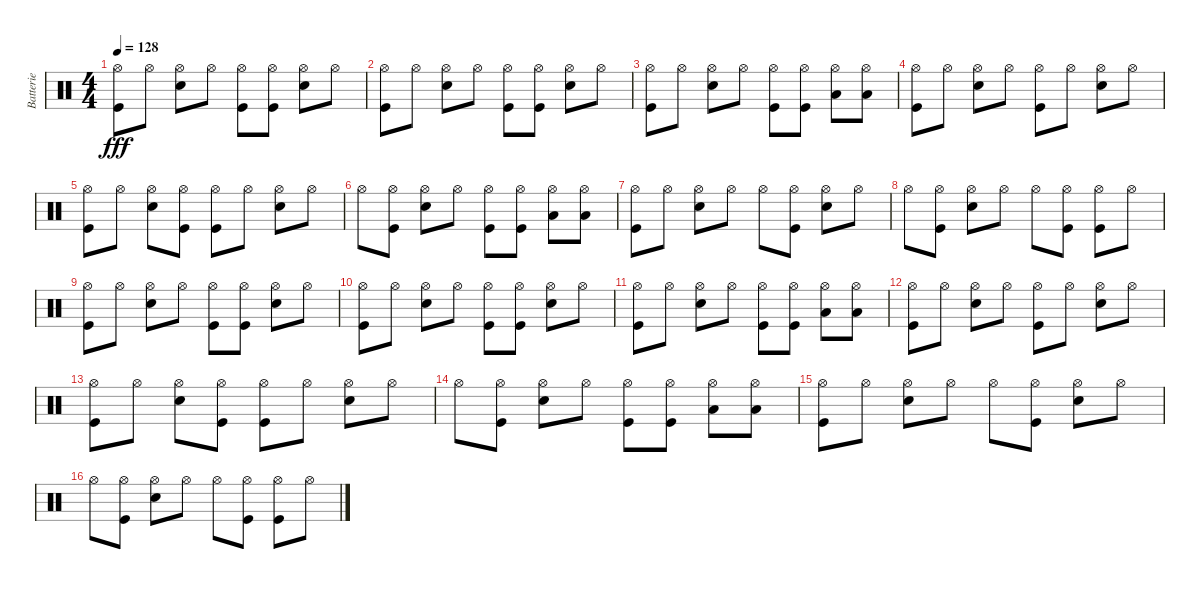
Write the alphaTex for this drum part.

\track ("Batterie" "Batterie") {instrument percussion}
\staff {score}
\articulation defaults
\ts (4 4)
\section ("" "")
\tempo 128
\clef neutral
\ks c
("Hi-Hat (open)" "Kick (hit)").8{dy fff} "Hi-Hat (open)".8 ("Hi-Hat (open)" "Electric Snare (hit)").8 "Hi-Hat (open)".8 ("Hi-Hat (open)" "Kick (hit)").8 ("Hi-Hat (open)" "Kick (hit)").8 ("Hi-Hat (open)" "Electric Snare (hit)").8 "Hi-Hat (open)".8 |
("Hi-Hat (open)" "Kick (hit)").8 "Hi-Hat (open)".8 ("Hi-Hat (open)" "Electric Snare (hit)").8 "Hi-Hat (open)".8 ("Hi-Hat (open)" "Kick (hit)").8 ("Hi-Hat (open)" "Kick (hit)").8 ("Hi-Hat (open)" "Electric Snare (hit)").8 "Hi-Hat (open)".8 |
("Hi-Hat (open)" "Kick (hit)").8 "Hi-Hat (open)".8 ("Hi-Hat (open)" "Electric Snare (hit)").8 "Hi-Hat (open)".8 ("Hi-Hat (open)" "Kick (hit)").8 ("Hi-Hat (open)" "Kick (hit)").8 ("Hi-Hat (open)" "Low Tom (hit)").8 ("Hi-Hat (open)" "Low Tom (hit)").8 |
("Hi-Hat (open)" "Kick (hit)").8 "Hi-Hat (open)".8 ("Hi-Hat (open)" "Electric Snare (hit)").8 "Hi-Hat (open)".8 ("Hi-Hat (open)" "Kick (hit)").8 "Hi-Hat (open)".8 ("Hi-Hat (open)" "Electric Snare (hit)").8 "Hi-Hat (open)".8 |
("Hi-Hat (open)" "Kick (hit)").8 "Hi-Hat (open)".8 ("Hi-Hat (open)" "Electric Snare (hit)").8 ("Hi-Hat (open)" "Kick (hit)").8 ("Hi-Hat (open)" "Kick (hit)").8 "Hi-Hat (open)".8 ("Hi-Hat (open)" "Electric Snare (hit)").8 "Hi-Hat (open)".8 |
"Hi-Hat (open)".8 ("Hi-Hat (open)" "Kick (hit)").8 ("Hi-Hat (open)" "Electric Snare (hit)").8 "Hi-Hat (open)".8 ("Hi-Hat (open)" "Kick (hit)").8 ("Hi-Hat (open)" "Kick (hit)").8 ("Hi-Hat (open)" "Low Tom (hit)").8 ("Hi-Hat (open)" "Low Tom (hit)").8 |
("Hi-Hat (open)" "Kick (hit)").8 "Hi-Hat (open)".8 ("Hi-Hat (open)" "Electric Snare (hit)").8 "Hi-Hat (open)".8 "Hi-Hat (open)".8 ("Hi-Hat (open)" "Kick (hit)").8 ("Hi-Hat (open)" "Electric Snare (hit)").8 "Hi-Hat (open)".8 |
"Hi-Hat (open)".8 ("Hi-Hat (open)" "Kick (hit)").8 ("Hi-Hat (open)" "Electric Snare (hit)").8 "Hi-Hat (open)".8 "Hi-Hat (open)".8 ("Hi-Hat (open)" "Kick (hit)").8 ("Hi-Hat (open)" "Kick (hit)").8 "Hi-Hat (open)".8 |
("Hi-Hat (open)" "Kick (hit)").8 "Hi-Hat (open)".8 ("Hi-Hat (open)" "Electric Snare (hit)").8 "Hi-Hat (open)".8 ("Hi-Hat (open)" "Kick (hit)").8 ("Hi-Hat (open)" "Kick (hit)").8 ("Hi-Hat (open)" "Electric Snare (hit)").8 "Hi-Hat (open)".8 |
("Hi-Hat (open)" "Kick (hit)").8 "Hi-Hat (open)".8 ("Hi-Hat (open)" "Electric Snare (hit)").8 "Hi-Hat (open)".8 ("Hi-Hat (open)" "Kick (hit)").8 ("Hi-Hat (open)" "Kick (hit)").8 ("Hi-Hat (open)" "Electric Snare (hit)").8 "Hi-Hat (open)".8 |
("Hi-Hat (open)" "Kick (hit)").8 "Hi-Hat (open)".8 ("Hi-Hat (open)" "Electric Snare (hit)").8 "Hi-Hat (open)".8 ("Hi-Hat (open)" "Kick (hit)").8 ("Hi-Hat (open)" "Kick (hit)").8 ("Hi-Hat (open)" "Low Tom (hit)").8 ("Hi-Hat (open)" "Low Tom (hit)").8 |
("Hi-Hat (open)" "Kick (hit)").8 "Hi-Hat (open)".8 ("Hi-Hat (open)" "Electric Snare (hit)").8 "Hi-Hat (open)".8 ("Hi-Hat (open)" "Kick (hit)").8 "Hi-Hat (open)".8 ("Hi-Hat (open)" "Electric Snare (hit)").8 "Hi-Hat (open)".8 |
("Hi-Hat (open)" "Kick (hit)").8 "Hi-Hat (open)".8 ("Hi-Hat (open)" "Electric Snare (hit)").8 ("Hi-Hat (open)" "Kick (hit)").8 ("Hi-Hat (open)" "Kick (hit)").8 "Hi-Hat (open)".8 ("Hi-Hat (open)" "Electric Snare (hit)").8 "Hi-Hat (open)".8 |
"Hi-Hat (open)".8 ("Hi-Hat (open)" "Kick (hit)").8 ("Hi-Hat (open)" "Electric Snare (hit)").8 "Hi-Hat (open)".8 ("Hi-Hat (open)" "Kick (hit)").8 ("Hi-Hat (open)" "Kick (hit)").8 ("Hi-Hat (open)" "Low Tom (hit)").8 ("Hi-Hat (open)" "Low Tom (hit)").8 |
("Hi-Hat (open)" "Kick (hit)").8 "Hi-Hat (open)".8 ("Hi-Hat (open)" "Electric Snare (hit)").8 "Hi-Hat (open)".8 "Hi-Hat (open)".8 ("Hi-Hat (open)" "Kick (hit)").8 ("Hi-Hat (open)" "Electric Snare (hit)").8 "Hi-Hat (open)".8 |
"Hi-Hat (open)".8 ("Hi-Hat (open)" "Kick (hit)").8 ("Hi-Hat (open)" "Electric Snare (hit)").8 "Hi-Hat (open)".8 "Hi-Hat (open)".8 ("Hi-Hat (open)" "Kick (hit)").8 ("Hi-Hat (open)" "Kick (hit)").8 "Hi-Hat (open)".8
